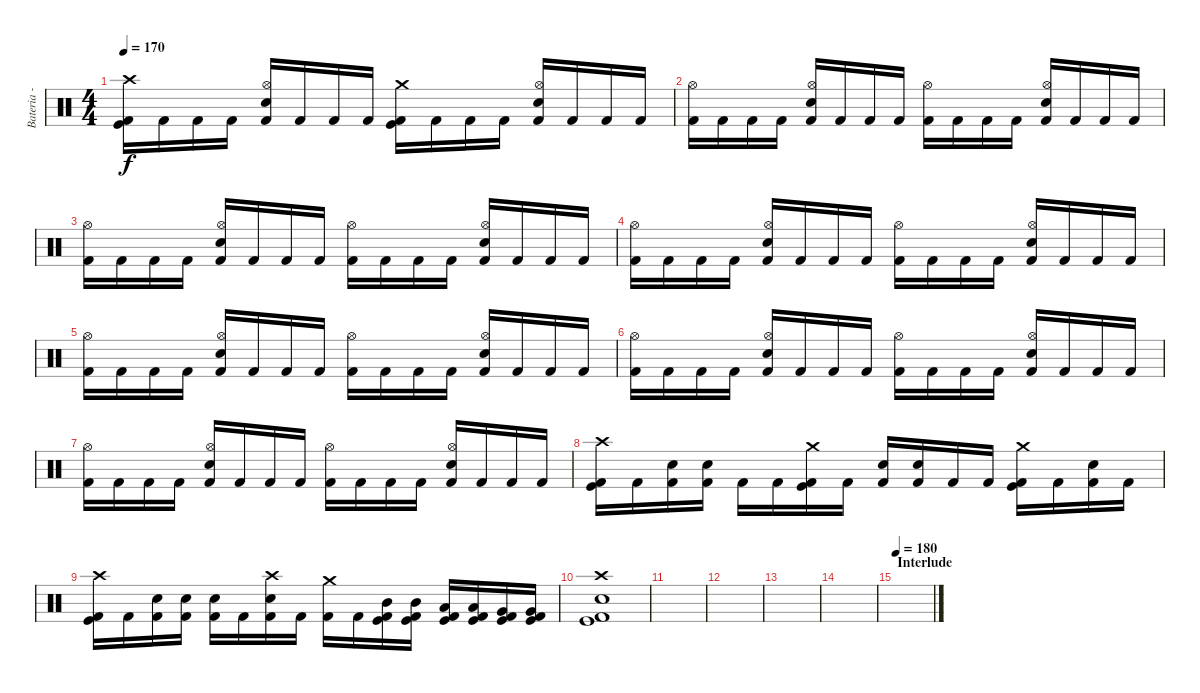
\track ("Bateria - Drums" "Bateria - ") {instrument percussion}
\staff {score}
\articulation defaults
\ts (4 4)
\tempo 170
\clef neutral
\ks c
("Crash high (hit)" "Kick (hit)" "Kick (hit) 2").16{dy f} "Kick (hit) 2".16 "Kick (hit) 2".16 "Kick (hit) 2".16 ("Hi-Hat (open)" "Electric Snare (hit)" "Kick (hit) 2").16 "Kick (hit) 2".16 "Kick (hit) 2".16 "Kick (hit) 2".16 ("Crash medium (hit)" "Kick (hit)" "Kick (hit) 2").16 "Kick (hit) 2".16 "Kick (hit) 2".16 "Kick (hit) 2".16 ("Hi-Hat (open)" "Electric Snare (hit)" "Kick (hit) 2").16 "Kick (hit) 2".16 "Kick (hit) 2".16 "Kick (hit) 2".16 |
("Hi-Hat (open)" "Kick (hit) 2").16 "Kick (hit) 2".16 "Kick (hit) 2".16 "Kick (hit) 2".16 ("Hi-Hat (open)" "Electric Snare (hit)" "Kick (hit) 2").16 "Kick (hit) 2".16 "Kick (hit) 2".16 "Kick (hit) 2".16 ("Hi-Hat (open)" "Kick (hit) 2").16 "Kick (hit) 2".16 "Kick (hit) 2".16 "Kick (hit) 2".16 ("Hi-Hat (open)" "Electric Snare (hit)" "Kick (hit) 2").16 "Kick (hit) 2".16 "Kick (hit) 2".16 "Kick (hit) 2".16 |
("Hi-Hat (open)" "Kick (hit) 2").16 "Kick (hit) 2".16 "Kick (hit) 2".16 "Kick (hit) 2".16 ("Hi-Hat (open)" "Electric Snare (hit)" "Kick (hit) 2").16 "Kick (hit) 2".16 "Kick (hit) 2".16 "Kick (hit) 2".16 ("Hi-Hat (open)" "Kick (hit) 2").16 "Kick (hit) 2".16 "Kick (hit) 2".16 "Kick (hit) 2".16 ("Hi-Hat (open)" "Electric Snare (hit)" "Kick (hit) 2").16 "Kick (hit) 2".16 "Kick (hit) 2".16 "Kick (hit) 2".16 |
("Hi-Hat (open)" "Kick (hit) 2").16 "Kick (hit) 2".16 "Kick (hit) 2".16 "Kick (hit) 2".16 ("Hi-Hat (open)" "Electric Snare (hit)" "Kick (hit) 2").16 "Kick (hit) 2".16 "Kick (hit) 2".16 "Kick (hit) 2".16 ("Hi-Hat (open)" "Kick (hit) 2").16 "Kick (hit) 2".16 "Kick (hit) 2".16 "Kick (hit) 2".16 ("Hi-Hat (open)" "Electric Snare (hit)" "Kick (hit) 2").16 "Kick (hit) 2".16 "Kick (hit) 2".16 "Kick (hit) 2".16 |
("Hi-Hat (open)" "Kick (hit) 2").16 "Kick (hit) 2".16 "Kick (hit) 2".16 "Kick (hit) 2".16 ("Hi-Hat (open)" "Electric Snare (hit)" "Kick (hit) 2").16 "Kick (hit) 2".16 "Kick (hit) 2".16 "Kick (hit) 2".16 ("Hi-Hat (open)" "Kick (hit) 2").16 "Kick (hit) 2".16 "Kick (hit) 2".16 "Kick (hit) 2".16 ("Hi-Hat (open)" "Electric Snare (hit)" "Kick (hit) 2").16 "Kick (hit) 2".16 "Kick (hit) 2".16 "Kick (hit) 2".16 |
("Hi-Hat (open)" "Kick (hit) 2").16 "Kick (hit) 2".16 "Kick (hit) 2".16 "Kick (hit) 2".16 ("Hi-Hat (open)" "Electric Snare (hit)" "Kick (hit) 2").16 "Kick (hit) 2".16 "Kick (hit) 2".16 "Kick (hit) 2".16 ("Hi-Hat (open)" "Kick (hit) 2").16 "Kick (hit) 2".16 "Kick (hit) 2".16 "Kick (hit) 2".16 ("Hi-Hat (open)" "Electric Snare (hit)" "Kick (hit) 2").16 "Kick (hit) 2".16 "Kick (hit) 2".16 "Kick (hit) 2".16 |
("Hi-Hat (open)" "Kick (hit) 2").16 "Kick (hit) 2".16 "Kick (hit) 2".16 "Kick (hit) 2".16 ("Hi-Hat (open)" "Electric Snare (hit)" "Kick (hit) 2").16 "Kick (hit) 2".16 "Kick (hit) 2".16 "Kick (hit) 2".16 ("Hi-Hat (open)" "Kick (hit) 2").16 "Kick (hit) 2".16 "Kick (hit) 2".16 "Kick (hit) 2".16 ("Hi-Hat (open)" "Electric Snare (hit)" "Kick (hit) 2").16 "Kick (hit) 2".16 "Kick (hit) 2".16 "Kick (hit) 2".16 |
("Crash high (hit)" "Kick (hit)" "Kick (hit) 2").16 "Kick (hit) 2".16 ("Snare (hit) 2" "Kick (hit) 2").16 ("Snare (hit) 2" "Kick (hit) 2").16 "Kick (hit) 2".16 "Kick (hit) 2".16 ("Crash medium (hit)" "Kick (hit)" "Kick (hit) 2").16 "Kick (hit) 2".16 ("Snare (hit) 2" "Kick (hit) 2").16 ("Snare (hit) 2" "Kick (hit) 2").16 "Kick (hit) 2".16 "Kick (hit) 2".16 ("Crash medium (hit)" "Kick (hit)" "Kick (hit) 2").16 "Kick (hit) 2".16 ("Snare (hit) 2" "Kick (hit) 2").16 "Kick (hit) 2".16 |
("Crash high (hit)" "Kick (hit)" "Kick (hit) 2").16 "Kick (hit) 2".16 ("Snare (hit) 2" "Kick (hit) 2").16 ("Snare (hit) 2" "Kick (hit) 2").16 ("Snare (hit) 2" "Kick (hit) 2").16 "Kick (hit) 2".16 ("Crash high (hit)" "Snare (hit) 2" "Kick (hit) 2").16 "Kick (hit) 2".16 ("Crash medium (hit)" "Kick (hit) 2").16 "Kick (hit) 2".16 ("Mid Tom (hit)" "Kick (hit)" "Kick (hit) 2").16 ("Mid Tom (hit)" "Kick (hit)" "Kick (hit) 2").16 ("Low Tom (hit)" "Kick (hit)" "Kick (hit) 2").16 ("Low Tom (hit)" "Kick (hit)" "Kick (hit) 2").16 ("Very Low Tom (hit)" "Kick (hit)" "Kick (hit) 2").16 ("Very Low Tom (hit)" "Kick (hit)" "Kick (hit) 2").16 |
("Crash high (hit)" "Snare (hit) 2" "Kick (hit)" "Kick (hit) 2").1 |
|
|
|
|
\section ("" "Interlude")
\tempo 180
